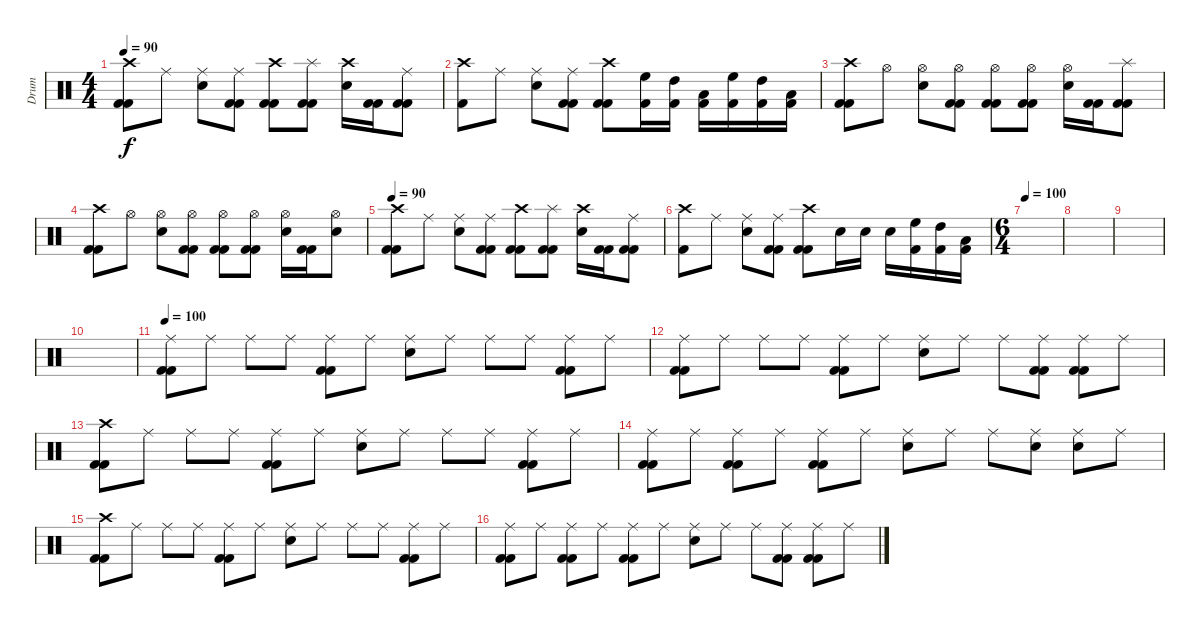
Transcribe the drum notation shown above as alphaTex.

\track ("Drum" "Drum") {instrument percussion}
\staff {score}
\articulation defaults
\ts (4 4)
\tempo 90
\clef neutral
\ks c
("Crash high (hit)" "Kick (hit) 2" "Kick (hit) 2").8{dy f} "Ride (middle)".8 ("Ride (middle)" "Electric Snare (hit)").8 ("Ride (middle)" "Kick (hit) 2" "Kick (hit) 2").8 ("Crash high (hit)" "Kick (hit) 2" "Kick (hit) 2").8 ("Splash (hit)" "Kick (hit) 2" "Kick (hit) 2").8 ("Crash high (hit)" "Electric Snare (hit)").16 ("Kick (hit) 2" "Kick (hit) 2").16 ("Ride (middle)" "Kick (hit) 2" "Kick (hit) 2").8 |
("Crash high (hit)" "Kick (hit) 2").8 "Ride (middle)".8 ("Ride (middle)" "Electric Snare (hit)").8 ("Ride (middle)" "Kick (hit) 2" "Kick (hit) 2").8 ("Crash high (hit)" "Kick (hit) 2" "Kick (hit) 2").8 ("High Floor Tom (hit)" "Kick (hit) 2").16 ("High Tom (hit)" "Kick (hit) 2").16 ("Low Tom (hit)" "Kick (hit) 2").16 ("High Floor Tom (hit)" "Kick (hit) 2").16 ("High Tom (hit)" "Kick (hit) 2").16 ("Low Tom (hit)" "Kick (hit) 2").16 |
("Crash high (hit)" "Kick (hit) 2" "Kick (hit) 2").8 "Hi-Hat (open)".8 ("Hi-Hat (open)" "Electric Snare (hit)").8 ("Hi-Hat (open)" "Kick (hit) 2" "Kick (hit) 2").8 ("Hi-Hat (open)" "Kick (hit) 2" "Kick (hit) 2").8 ("Hi-Hat (open)" "Kick (hit) 2" "Kick (hit) 2").8 ("Hi-Hat (open)" "Electric Snare (hit)").16 ("Kick (hit) 2" "Kick (hit) 2").16 ("Splash (hit)" "Kick (hit) 2" "Kick (hit) 2").8 |
("Crash high (hit)" "Kick (hit) 2" "Kick (hit) 2").8 "Hi-Hat (open)".8 ("Hi-Hat (open)" "Electric Snare (hit)").8 ("Hi-Hat (open)" "Kick (hit) 2" "Kick (hit) 2").8 ("Hi-Hat (open)" "Kick (hit) 2" "Kick (hit) 2").8 ("Hi-Hat (open)" "Kick (hit) 2" "Kick (hit) 2").8 ("Hi-Hat (open)" "Electric Snare (hit)").16 ("Kick (hit) 2" "Kick (hit) 2").16 ("Hi-Hat (open)" "Electric Snare (hit)").8 |
\tempo 90
("Crash high (hit)" "Kick (hit) 2" "Kick (hit) 2").8 "Ride (middle)".8 ("Ride (middle)" "Electric Snare (hit)").8 ("Ride (middle)" "Kick (hit) 2" "Kick (hit) 2").8 ("Crash high (hit)" "Kick (hit) 2" "Kick (hit) 2").8 ("Splash (hit)" "Kick (hit) 2" "Kick (hit) 2").8 ("Crash high (hit)" "Electric Snare (hit)").16 ("Kick (hit) 2" "Kick (hit) 2").16 ("Ride (middle)" "Kick (hit) 2" "Kick (hit) 2").8 |
("Crash high (hit)" "Kick (hit) 2").8 "Ride (middle)".8 ("Ride (middle)" "Electric Snare (hit)").8 ("Ride (middle)" "Kick (hit) 2" "Kick (hit) 2").8 ("Crash high (hit)" "Kick (hit) 2" "Kick (hit) 2").8 "Electric Snare (hit)".16 "Electric Snare (hit)".16 "Electric Snare (hit)".16 ("High Floor Tom (hit)" "Kick (hit) 2").16 ("High Tom (hit)" "Kick (hit) 2").16 ("Low Tom (hit)" "Kick (hit) 2").16 |
\ts (6 4)
\tempo 100
|
|
|
|
\tempo 100
("Ride (middle)" "Kick (hit) 2" "Kick (hit) 2").8 "Ride (middle)".8 "Ride (middle)".8 "Ride (middle)".8 ("Ride (middle)" "Kick (hit) 2" "Kick (hit) 2").8 "Ride (middle)".8 ("Ride (middle)" "Electric Snare (hit)").8 "Ride (middle)".8 "Ride (middle)".8 "Ride (middle)".8 ("Ride (middle)" "Kick (hit) 2" "Kick (hit) 2").8 "Ride (middle)".8 |
("Ride (middle)" "Kick (hit) 2" "Kick (hit) 2").8 "Ride (middle)".8 "Ride (middle)".8 "Ride (middle)".8 ("Ride (middle)" "Kick (hit) 2" "Kick (hit) 2").8 "Ride (middle)".8 ("Ride (middle)" "Electric Snare (hit)").8 "Ride (middle)".8 "Ride (middle)".8 ("Ride (middle)" "Kick (hit) 2" "Kick (hit) 2").8 ("Ride (middle)" "Kick (hit) 2" "Kick (hit) 2").8 "Ride (middle)".8 |
("Crash high (hit)" "Kick (hit) 2" "Kick (hit) 2").8 "Ride (middle)".8 "Ride (middle)".8 "Ride (middle)".8 ("Ride (middle)" "Kick (hit) 2" "Kick (hit) 2").8 "Ride (middle)".8 ("Ride (middle)" "Electric Snare (hit)").8 "Ride (middle)".8 "Ride (middle)".8 "Ride (middle)".8 ("Ride (middle)" "Kick (hit) 2" "Kick (hit) 2").8 "Ride (middle)".8 |
("Ride (middle)" "Kick (hit) 2" "Kick (hit) 2").8 "Ride (middle)".8 ("Ride (middle)" "Kick (hit) 2" "Kick (hit) 2").8 "Ride (middle)".8 ("Ride (middle)" "Kick (hit) 2" "Kick (hit) 2").8 "Ride (middle)".8 ("Ride (middle)" "Electric Snare (hit)").8 "Ride (middle)".8 "Ride (middle)".8 ("Ride (middle)" "Electric Snare (hit)").8 ("Ride (middle)" "Electric Snare (hit)").8 "Ride (middle)".8 |
("Crash high (hit)" "Kick (hit) 2" "Kick (hit) 2").8 "Ride (middle)".8 "Ride (middle)".8 "Ride (middle)".8 ("Ride (middle)" "Kick (hit) 2" "Kick (hit) 2").8 "Ride (middle)".8 ("Ride (middle)" "Electric Snare (hit)").8 "Ride (middle)".8 "Ride (middle)".8 "Ride (middle)".8 ("Ride (middle)" "Kick (hit) 2" "Kick (hit) 2").8 "Ride (middle)".8 |
("Ride (middle)" "Kick (hit) 2" "Kick (hit) 2").8 "Ride (middle)".8 ("Ride (middle)" "Kick (hit) 2" "Kick (hit) 2").8 "Ride (middle)".8 ("Ride (middle)" "Kick (hit) 2" "Kick (hit) 2").8 "Ride (middle)".8 ("Ride (middle)" "Electric Snare (hit)").8 "Ride (middle)".8 "Ride (middle)".8 ("Ride (middle)" "Kick (hit) 2" "Kick (hit) 2").8 ("Ride (middle)" "Kick (hit) 2" "Kick (hit) 2").8 "Ride (middle)".8
